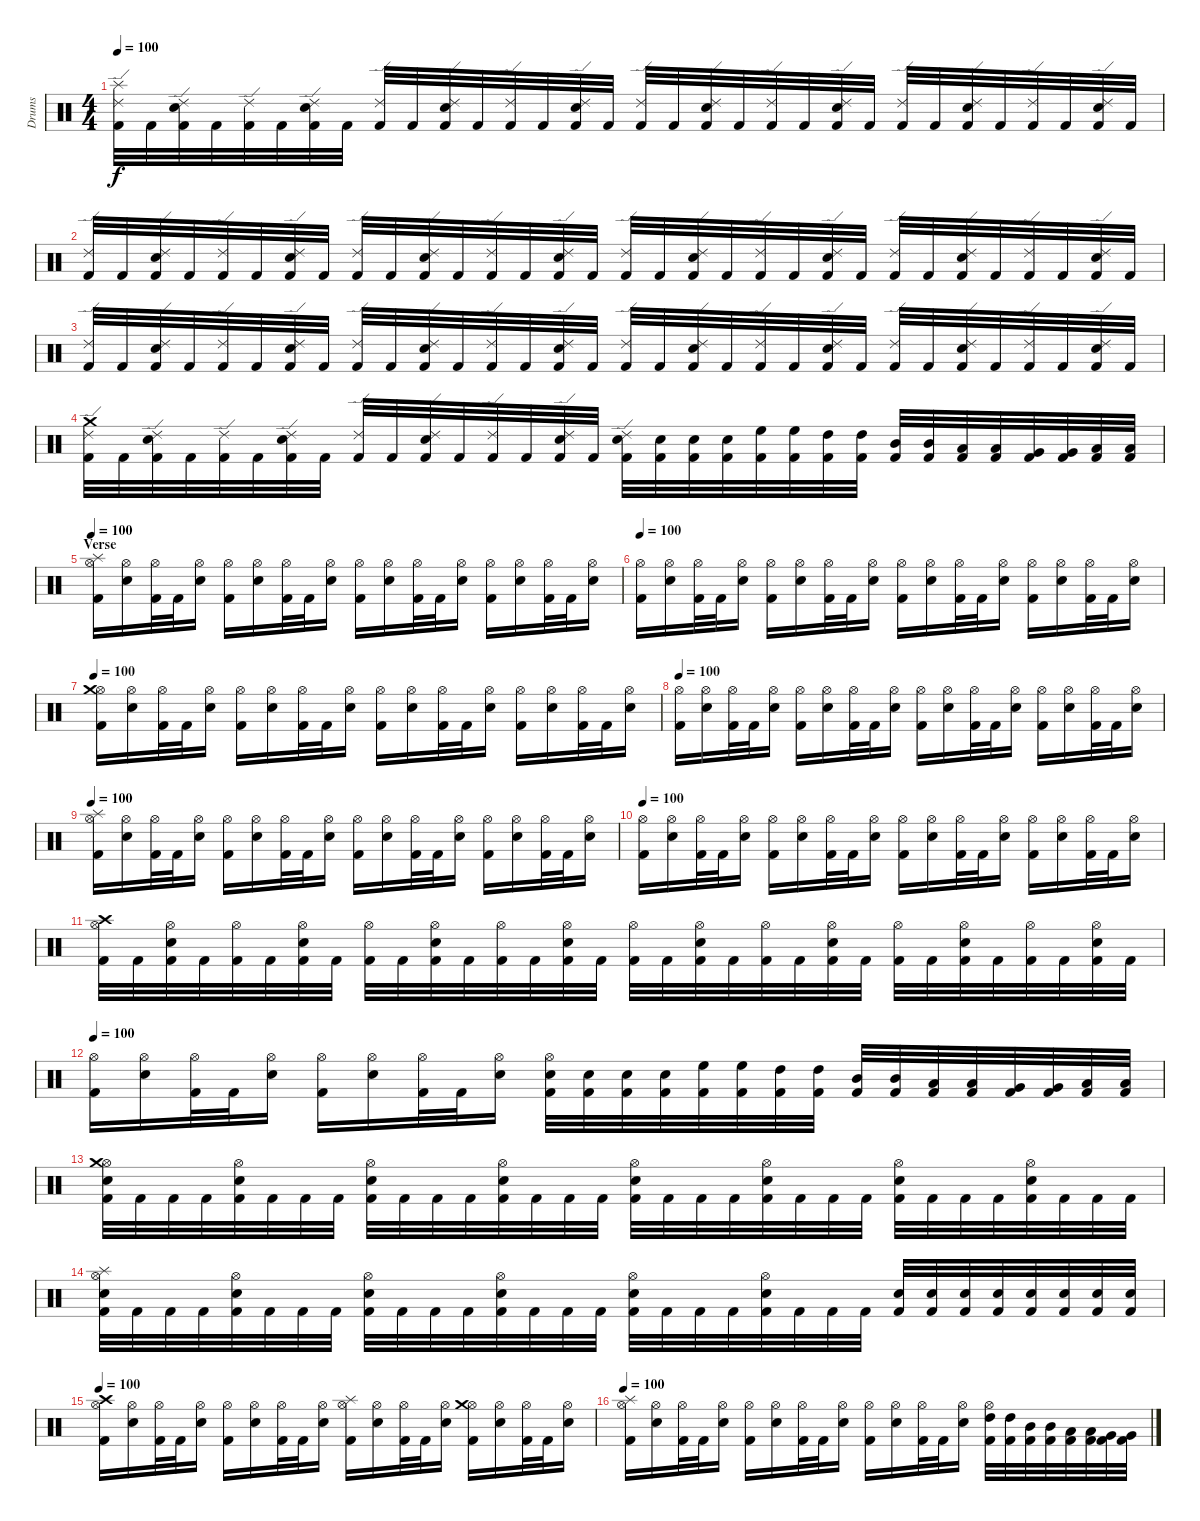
\track ("Drums" "Drums") {instrument percussion}
\staff {score}
\articulation defaults
\ts (4 4)
\section ("" "")
\tempo 100
\clef neutral
\ks c
("Kick (hit) 2" "Ride (edge) 2" "Splash (hit)").32{dy f} "Kick (hit) 2".32 ("Kick (hit) 2" "Snare (hit) 2" "Ride (edge) 2").32 "Kick (hit) 2".32 ("Kick (hit) 2" "Ride (edge) 2").32 "Kick (hit) 2".32 ("Kick (hit) 2" "Snare (hit) 2" "Ride (edge) 2").32 "Kick (hit) 2".32 ("Kick (hit) 2" "Ride (edge) 2").32 "Kick (hit) 2".32 ("Kick (hit) 2" "Snare (hit) 2" "Ride (edge) 2").32 "Kick (hit) 2".32 ("Kick (hit) 2" "Ride (edge) 2").32 "Kick (hit) 2".32 ("Kick (hit) 2" "Snare (hit) 2" "Ride (edge) 2").32 "Kick (hit) 2".32 ("Kick (hit) 2" "Ride (edge) 2").32 "Kick (hit) 2".32 ("Kick (hit) 2" "Snare (hit) 2" "Ride (edge) 2").32 "Kick (hit) 2".32 ("Kick (hit) 2" "Ride (edge) 2").32 "Kick (hit) 2".32 ("Kick (hit) 2" "Snare (hit) 2" "Ride (edge) 2").32 "Kick (hit) 2".32 ("Kick (hit) 2" "Ride (edge) 2").32 "Kick (hit) 2".32 ("Kick (hit) 2" "Snare (hit) 2" "Ride (edge) 2").32 "Kick (hit) 2".32 ("Kick (hit) 2" "Ride (edge) 2").32 "Kick (hit) 2".32 ("Kick (hit) 2" "Snare (hit) 2" "Ride (edge) 2").32 "Kick (hit) 2".32 |
("Kick (hit) 2" "Ride (edge) 2").32 "Kick (hit) 2".32 ("Kick (hit) 2" "Snare (hit) 2" "Ride (edge) 2").32 "Kick (hit) 2".32 ("Kick (hit) 2" "Ride (edge) 2").32 "Kick (hit) 2".32 ("Kick (hit) 2" "Snare (hit) 2" "Ride (edge) 2").32 "Kick (hit) 2".32 ("Kick (hit) 2" "Ride (edge) 2").32 "Kick (hit) 2".32 ("Kick (hit) 2" "Snare (hit) 2" "Ride (edge) 2").32 "Kick (hit) 2".32 ("Kick (hit) 2" "Ride (edge) 2").32 "Kick (hit) 2".32 ("Kick (hit) 2" "Snare (hit) 2" "Ride (edge) 2").32 "Kick (hit) 2".32 ("Kick (hit) 2" "Ride (edge) 2").32 "Kick (hit) 2".32 ("Kick (hit) 2" "Snare (hit) 2" "Ride (edge) 2").32 "Kick (hit) 2".32 ("Kick (hit) 2" "Ride (edge) 2").32 "Kick (hit) 2".32 ("Kick (hit) 2" "Snare (hit) 2" "Ride (edge) 2").32 "Kick (hit) 2".32 ("Kick (hit) 2" "Ride (edge) 2").32 "Kick (hit) 2".32 ("Kick (hit) 2" "Snare (hit) 2" "Ride (edge) 2").32 "Kick (hit) 2".32 ("Kick (hit) 2" "Ride (edge) 2").32 "Kick (hit) 2".32 ("Kick (hit) 2" "Snare (hit) 2" "Ride (edge) 2").32 "Kick (hit) 2".32 |
("Kick (hit) 2" "Ride (edge) 2").32 "Kick (hit) 2".32 ("Kick (hit) 2" "Snare (hit) 2" "Ride (edge) 2").32 "Kick (hit) 2".32 ("Kick (hit) 2" "Ride (edge) 2").32 "Kick (hit) 2".32 ("Kick (hit) 2" "Snare (hit) 2" "Ride (edge) 2").32 "Kick (hit) 2".32 ("Kick (hit) 2" "Ride (edge) 2").32 "Kick (hit) 2".32 ("Kick (hit) 2" "Snare (hit) 2" "Ride (edge) 2").32 "Kick (hit) 2".32 ("Kick (hit) 2" "Ride (edge) 2").32 "Kick (hit) 2".32 ("Kick (hit) 2" "Snare (hit) 2" "Ride (edge) 2").32 "Kick (hit) 2".32 ("Kick (hit) 2" "Ride (edge) 2").32 "Kick (hit) 2".32 ("Kick (hit) 2" "Snare (hit) 2" "Ride (edge) 2").32 "Kick (hit) 2".32 ("Kick (hit) 2" "Ride (edge) 2").32 "Kick (hit) 2".32 ("Kick (hit) 2" "Snare (hit) 2" "Ride (edge) 2").32 "Kick (hit) 2".32 ("Kick (hit) 2" "Ride (edge) 2").32 "Kick (hit) 2".32 ("Kick (hit) 2" "Snare (hit) 2" "Ride (edge) 2").32 "Kick (hit) 2".32 ("Kick (hit) 2" "Ride (edge) 2").32 "Kick (hit) 2".32 ("Kick (hit) 2" "Snare (hit) 2" "Ride (edge) 2").32 "Kick (hit) 2".32 |
("Kick (hit) 2" "Ride (edge) 2" "Crash medium (hit)").32 "Kick (hit) 2".32 ("Kick (hit) 2" "Snare (hit) 2" "Ride (edge) 2").32 "Kick (hit) 2".32 ("Kick (hit) 2" "Ride (edge) 2").32 "Kick (hit) 2".32 ("Kick (hit) 2" "Snare (hit) 2" "Ride (edge) 2").32 "Kick (hit) 2".32 ("Kick (hit) 2" "Ride (edge) 2").32 "Kick (hit) 2".32 ("Kick (hit) 2" "Snare (hit) 2" "Ride (edge) 2").32 "Kick (hit) 2".32 ("Kick (hit) 2" "Ride (edge) 2").32 "Kick (hit) 2".32 ("Kick (hit) 2" "Snare (hit) 2" "Ride (edge) 2").32 "Kick (hit) 2".32 ("Kick (hit) 2" "Snare (hit) 2" "Ride (edge) 2").32 ("Kick (hit) 2" "Snare (hit) 2").32 ("Kick (hit) 2" "Snare (hit) 2").32 ("Kick (hit) 2" "Snare (hit) 2").32 ("Kick (hit) 2" "High Floor Tom (hit)").32 ("Kick (hit) 2" "High Floor Tom (hit)").32 ("Kick (hit) 2" "High Tom (hit)").32 ("Kick (hit) 2" "High Tom (hit)").32 ("Kick (hit) 2" "Mid Tom (hit)").32 ("Kick (hit) 2" "Mid Tom (hit)").32 ("Kick (hit) 2" "Low Tom (hit)").32 ("Kick (hit) 2" "Low Tom (hit)").32 ("Kick (hit) 2" "Very Low Tom (hit)").32 ("Kick (hit) 2" "Very Low Tom (hit)").32 ("Kick (hit) 2" "Low Floor Tom (hit)").32 ("Kick (hit) 2" "Low Floor Tom (hit)").32 |
\section ("" "Verse")
\tempo 100
("Kick (hit) 2" "Hi-Hat (open)" "Splash (hit)").16 ("Snare (hit) 2" "Hi-Hat (open)").16 ("Kick (hit) 2" "Hi-Hat (open)").32 "Kick (hit) 2".32 ("Snare (hit) 2" "Hi-Hat (open)").16 ("Kick (hit) 2" "Hi-Hat (open)").16 ("Snare (hit) 2" "Hi-Hat (open)").16 ("Kick (hit) 2" "Hi-Hat (open)").32 "Kick (hit) 2".32 ("Snare (hit) 2" "Hi-Hat (open)").16 ("Kick (hit) 2" "Hi-Hat (open)").16 ("Snare (hit) 2" "Hi-Hat (open)").16 ("Kick (hit) 2" "Hi-Hat (open)").32 "Kick (hit) 2".32 ("Snare (hit) 2" "Hi-Hat (open)").16 ("Kick (hit) 2" "Hi-Hat (open)").16 ("Snare (hit) 2" "Hi-Hat (open)").16 ("Kick (hit) 2" "Hi-Hat (open)").32 "Kick (hit) 2".32 ("Snare (hit) 2" "Hi-Hat (open)").16 |
\tempo 100
("Kick (hit) 2" "Hi-Hat (open)").16 ("Snare (hit) 2" "Hi-Hat (open)").16 ("Kick (hit) 2" "Hi-Hat (open)").32 "Kick (hit) 2".32 ("Snare (hit) 2" "Hi-Hat (open)").16 ("Kick (hit) 2" "Hi-Hat (open)").16 ("Snare (hit) 2" "Hi-Hat (open)").16 ("Kick (hit) 2" "Hi-Hat (open)").32 "Kick (hit) 2".32 ("Snare (hit) 2" "Hi-Hat (open)").16 ("Kick (hit) 2" "Hi-Hat (open)").16 ("Snare (hit) 2" "Hi-Hat (open)").16 ("Kick (hit) 2" "Hi-Hat (open)").32 "Kick (hit) 2".32 ("Snare (hit) 2" "Hi-Hat (open)").16 ("Kick (hit) 2" "Hi-Hat (open)").16 ("Snare (hit) 2" "Hi-Hat (open)").16 ("Kick (hit) 2" "Hi-Hat (open)").32 "Kick (hit) 2".32 ("Snare (hit) 2" "Hi-Hat (open)").16 |
\tempo 100
("Kick (hit) 2" "Hi-Hat (open)" "Crash medium (hit)").16 ("Snare (hit) 2" "Hi-Hat (open)").16 ("Kick (hit) 2" "Hi-Hat (open)").32 "Kick (hit) 2".32 ("Snare (hit) 2" "Hi-Hat (open)").16 ("Kick (hit) 2" "Hi-Hat (open)").16 ("Snare (hit) 2" "Hi-Hat (open)").16 ("Kick (hit) 2" "Hi-Hat (open)").32 "Kick (hit) 2".32 ("Snare (hit) 2" "Hi-Hat (open)").16 ("Kick (hit) 2" "Hi-Hat (open)").16 ("Snare (hit) 2" "Hi-Hat (open)").16 ("Kick (hit) 2" "Hi-Hat (open)").32 "Kick (hit) 2".32 ("Snare (hit) 2" "Hi-Hat (open)").16 ("Kick (hit) 2" "Hi-Hat (open)").16 ("Snare (hit) 2" "Hi-Hat (open)").16 ("Kick (hit) 2" "Hi-Hat (open)").32 "Kick (hit) 2".32 ("Snare (hit) 2" "Hi-Hat (open)").16 |
\tempo 100
("Kick (hit) 2" "Hi-Hat (open)").16 ("Snare (hit) 2" "Hi-Hat (open)").16 ("Kick (hit) 2" "Hi-Hat (open)").32 "Kick (hit) 2".32 ("Snare (hit) 2" "Hi-Hat (open)").16 ("Kick (hit) 2" "Hi-Hat (open)").16 ("Snare (hit) 2" "Hi-Hat (open)").16 ("Kick (hit) 2" "Hi-Hat (open)").32 "Kick (hit) 2".32 ("Snare (hit) 2" "Hi-Hat (open)").16 ("Kick (hit) 2" "Hi-Hat (open)").16 ("Snare (hit) 2" "Hi-Hat (open)").16 ("Kick (hit) 2" "Hi-Hat (open)").32 "Kick (hit) 2".32 ("Snare (hit) 2" "Hi-Hat (open)").16 ("Kick (hit) 2" "Hi-Hat (open)").16 ("Snare (hit) 2" "Hi-Hat (open)").16 ("Kick (hit) 2" "Hi-Hat (open)").32 "Kick (hit) 2".32 ("Snare (hit) 2" "Hi-Hat (open)").16 |
\tempo 100
("Kick (hit) 2" "Hi-Hat (open)" "Splash (hit)").16 ("Snare (hit) 2" "Hi-Hat (open)").16 ("Kick (hit) 2" "Hi-Hat (open)").32 "Kick (hit) 2".32 ("Snare (hit) 2" "Hi-Hat (open)").16 ("Kick (hit) 2" "Hi-Hat (open)").16 ("Snare (hit) 2" "Hi-Hat (open)").16 ("Kick (hit) 2" "Hi-Hat (open)").32 "Kick (hit) 2".32 ("Snare (hit) 2" "Hi-Hat (open)").16 ("Kick (hit) 2" "Hi-Hat (open)").16 ("Snare (hit) 2" "Hi-Hat (open)").16 ("Kick (hit) 2" "Hi-Hat (open)").32 "Kick (hit) 2".32 ("Snare (hit) 2" "Hi-Hat (open)").16 ("Kick (hit) 2" "Hi-Hat (open)").16 ("Snare (hit) 2" "Hi-Hat (open)").16 ("Kick (hit) 2" "Hi-Hat (open)").32 "Kick (hit) 2".32 ("Snare (hit) 2" "Hi-Hat (open)").16 |
\tempo 100
("Kick (hit) 2" "Hi-Hat (open)").16 ("Snare (hit) 2" "Hi-Hat (open)").16 ("Kick (hit) 2" "Hi-Hat (open)").32 "Kick (hit) 2".32 ("Snare (hit) 2" "Hi-Hat (open)").16 ("Kick (hit) 2" "Hi-Hat (open)").16 ("Snare (hit) 2" "Hi-Hat (open)").16 ("Kick (hit) 2" "Hi-Hat (open)").32 "Kick (hit) 2".32 ("Snare (hit) 2" "Hi-Hat (open)").16 ("Kick (hit) 2" "Hi-Hat (open)").16 ("Snare (hit) 2" "Hi-Hat (open)").16 ("Kick (hit) 2" "Hi-Hat (open)").32 "Kick (hit) 2".32 ("Snare (hit) 2" "Hi-Hat (open)").16 ("Kick (hit) 2" "Hi-Hat (open)").16 ("Snare (hit) 2" "Hi-Hat (open)").16 ("Kick (hit) 2" "Hi-Hat (open)").32 "Kick (hit) 2".32 ("Snare (hit) 2" "Hi-Hat (open)").16 |
("Kick (hit) 2" "Hi-Hat (open)" "Crash high (hit)").32 "Kick (hit) 2".32 ("Kick (hit) 2" "Snare (hit) 2" "Hi-Hat (open)").32 "Kick (hit) 2".32 ("Kick (hit) 2" "Hi-Hat (open)").32 "Kick (hit) 2".32 ("Kick (hit) 2" "Snare (hit) 2" "Hi-Hat (open)").32 "Kick (hit) 2".32 ("Kick (hit) 2" "Hi-Hat (open)").32 "Kick (hit) 2".32 ("Kick (hit) 2" "Snare (hit) 2" "Hi-Hat (open)").32 "Kick (hit) 2".32 ("Kick (hit) 2" "Hi-Hat (open)").32 "Kick (hit) 2".32 ("Kick (hit) 2" "Snare (hit) 2" "Hi-Hat (open)").32 "Kick (hit) 2".32 ("Kick (hit) 2" "Hi-Hat (open)").32 "Kick (hit) 2".32 ("Kick (hit) 2" "Snare (hit) 2" "Hi-Hat (open)").32 "Kick (hit) 2".32 ("Kick (hit) 2" "Hi-Hat (open)").32 "Kick (hit) 2".32 ("Kick (hit) 2" "Snare (hit) 2" "Hi-Hat (open)").32 "Kick (hit) 2".32 ("Kick (hit) 2" "Hi-Hat (open)").32 "Kick (hit) 2".32 ("Kick (hit) 2" "Snare (hit) 2" "Hi-Hat (open)").32 "Kick (hit) 2".32 ("Kick (hit) 2" "Hi-Hat (open)").32 "Kick (hit) 2".32 ("Kick (hit) 2" "Snare (hit) 2" "Hi-Hat (open)").32 "Kick (hit) 2".32 |
\tempo 100
("Kick (hit) 2" "Hi-Hat (open)").16 ("Snare (hit) 2" "Hi-Hat (open)").16 ("Kick (hit) 2" "Hi-Hat (open)").32 "Kick (hit) 2".32 ("Snare (hit) 2" "Hi-Hat (open)").16 ("Kick (hit) 2" "Hi-Hat (open)").16 ("Snare (hit) 2" "Hi-Hat (open)").16 ("Kick (hit) 2" "Hi-Hat (open)").32 "Kick (hit) 2".32 ("Snare (hit) 2" "Hi-Hat (open)").16 ("Kick (hit) 2" "Snare (hit) 2" "Hi-Hat (open)").32 ("Kick (hit) 2" "Snare (hit) 2").32 ("Kick (hit) 2" "Snare (hit) 2").32 ("Kick (hit) 2" "Snare (hit) 2").32 ("Kick (hit) 2" "High Floor Tom (hit)").32 ("Kick (hit) 2" "High Floor Tom (hit)").32 ("Kick (hit) 2" "High Tom (hit)").32 ("Kick (hit) 2" "High Tom (hit)").32 ("Kick (hit) 2" "Mid Tom (hit)").32 ("Kick (hit) 2" "Mid Tom (hit)").32 ("Kick (hit) 2" "Low Tom (hit)").32 ("Kick (hit) 2" "Low Tom (hit)").32 ("Kick (hit) 2" "Very Low Tom (hit)").32 ("Kick (hit) 2" "Very Low Tom (hit)").32 ("Kick (hit) 2" "Low Floor Tom (hit)").32 ("Kick (hit) 2" "Low Floor Tom (hit)").32 |
\section ("" "")
("Kick (hit) 2" "Snare (hit) 2" "Hi-Hat (open)" "Crash medium (hit)").32 "Kick (hit) 2".32 "Kick (hit) 2".32 "Kick (hit) 2".32 ("Kick (hit) 2" "Snare (hit) 2" "Hi-Hat (open)").32 "Kick (hit) 2".32 "Kick (hit) 2".32 "Kick (hit) 2".32 ("Kick (hit) 2" "Snare (hit) 2" "Hi-Hat (open)").32 "Kick (hit) 2".32 "Kick (hit) 2".32 "Kick (hit) 2".32 ("Kick (hit) 2" "Snare (hit) 2" "Hi-Hat (open)").32 "Kick (hit) 2".32 "Kick (hit) 2".32 "Kick (hit) 2".32 ("Kick (hit) 2" "Snare (hit) 2" "Hi-Hat (open)").32 "Kick (hit) 2".32 "Kick (hit) 2".32 "Kick (hit) 2".32 ("Kick (hit) 2" "Snare (hit) 2" "Hi-Hat (open)").32 "Kick (hit) 2".32 "Kick (hit) 2".32 "Kick (hit) 2".32 ("Kick (hit) 2" "Snare (hit) 2" "Hi-Hat (open)").32 "Kick (hit) 2".32 "Kick (hit) 2".32 "Kick (hit) 2".32 ("Kick (hit) 2" "Snare (hit) 2" "Hi-Hat (open)").32 "Kick (hit) 2".32 "Kick (hit) 2".32 "Kick (hit) 2".32 |
("Kick (hit) 2" "Snare (hit) 2" "Hi-Hat (open)" "Splash (hit)").32 "Kick (hit) 2".32 "Kick (hit) 2".32 "Kick (hit) 2".32 ("Kick (hit) 2" "Snare (hit) 2" "Hi-Hat (open)").32 "Kick (hit) 2".32 "Kick (hit) 2".32 "Kick (hit) 2".32 ("Kick (hit) 2" "Snare (hit) 2" "Hi-Hat (open)").32 "Kick (hit) 2".32 "Kick (hit) 2".32 "Kick (hit) 2".32 ("Kick (hit) 2" "Snare (hit) 2" "Hi-Hat (open)").32 "Kick (hit) 2".32 "Kick (hit) 2".32 "Kick (hit) 2".32 ("Kick (hit) 2" "Snare (hit) 2" "Hi-Hat (open)").32 "Kick (hit) 2".32 "Kick (hit) 2".32 "Kick (hit) 2".32 ("Kick (hit) 2" "Snare (hit) 2" "Hi-Hat (open)").32 "Kick (hit) 2".32 "Kick (hit) 2".32 "Kick (hit) 2".32 ("Kick (hit) 2" "Snare (hit) 2").32 ("Kick (hit) 2" "Snare (hit) 2").32 ("Kick (hit) 2" "Snare (hit) 2").32 ("Kick (hit) 2" "Snare (hit) 2").32 ("Kick (hit) 2" "Snare (hit) 2").32 ("Kick (hit) 2" "Snare (hit) 2").32 ("Kick (hit) 2" "Snare (hit) 2").32 ("Kick (hit) 2" "Snare (hit) 2").32 |
\tempo 100
("Kick (hit) 2" "Hi-Hat (open)" "Crash high (hit)").16 ("Snare (hit) 2" "Hi-Hat (open)").16 ("Kick (hit) 2" "Hi-Hat (open)").32 "Kick (hit) 2".32 ("Snare (hit) 2" "Hi-Hat (open)").16 ("Kick (hit) 2" "Hi-Hat (open)").16 ("Snare (hit) 2" "Hi-Hat (open)").16 ("Kick (hit) 2" "Hi-Hat (open)").32 "Kick (hit) 2".32 ("Snare (hit) 2" "Hi-Hat (open)").16 ("Kick (hit) 2" "Hi-Hat (open)" "Splash (hit)").16 ("Snare (hit) 2" "Hi-Hat (open)").16 ("Kick (hit) 2" "Hi-Hat (open)").32 "Kick (hit) 2".32 ("Snare (hit) 2" "Hi-Hat (open)").16 ("Kick (hit) 2" "Hi-Hat (open)" "Crash medium (hit)").16 ("Snare (hit) 2" "Hi-Hat (open)").16 ("Kick (hit) 2" "Hi-Hat (open)").32 "Kick (hit) 2".32 ("Snare (hit) 2" "Hi-Hat (open)").16 |
\tempo 100
("Kick (hit) 2" "Hi-Hat (open)" "Splash (hit)").16 ("Snare (hit) 2" "Hi-Hat (open)").16 ("Kick (hit) 2" "Hi-Hat (open)").32 "Kick (hit) 2".32 ("Snare (hit) 2" "Hi-Hat (open)").16 ("Kick (hit) 2" "Hi-Hat (open)").16 ("Snare (hit) 2" "Hi-Hat (open)").16 ("Kick (hit) 2" "Hi-Hat (open)").32 "Kick (hit) 2".32 ("Snare (hit) 2" "Hi-Hat (open)").16 ("Kick (hit) 2" "Hi-Hat (open)").16 ("Snare (hit) 2" "Hi-Hat (open)").16 ("Kick (hit) 2" "Hi-Hat (open)").32 "Kick (hit) 2".32 ("Snare (hit) 2" "Hi-Hat (open)").16 ("Kick (hit) 2" "High Tom (hit)" "Hi-Hat (open)").32 ("Kick (hit) 2" "High Tom (hit)").32 ("Kick (hit) 2" "Mid Tom (hit)").32 ("Kick (hit) 2" "Mid Tom (hit)").32 ("Kick (hit) 2" "Low Tom (hit)").32 ("Kick (hit) 2" "Low Tom (hit)").32 ("Kick (hit) 2" "Very Low Tom (hit)").32 ("Kick (hit) 2" "Very Low Tom (hit)").32
